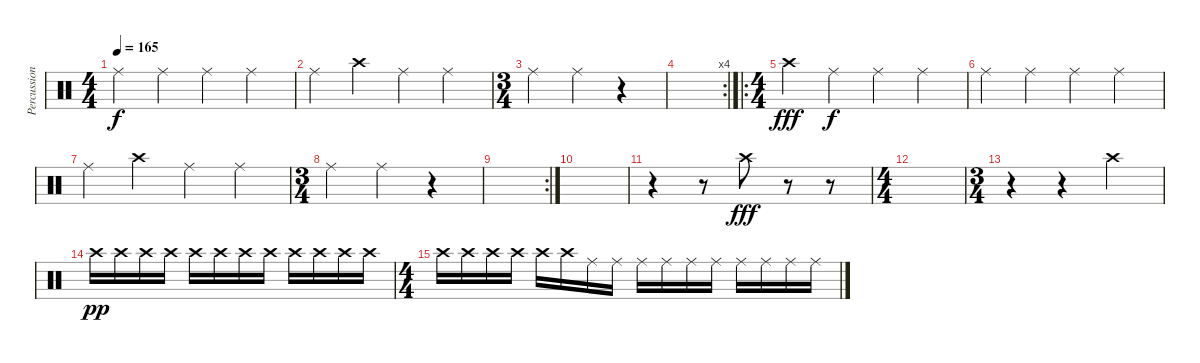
\track ("Percussion" "Percussion") {instrument percussion}
\staff {score}
\articulation defaults
\ts (4 4)
\tempo 165
\clef neutral
\ks c "Ride (middle)".4{dy f} "Ride (middle)".4 "Ride (middle)".4 "Ride (middle)".4
|
"Ride (middle)".4 "Crash high (hit)".4 "Ride (middle)".4 "Ride (middle)".4 |
\ts (3 4)
"Ride (middle)".4 "Ride (middle)".4 r.4 |
\rc 4
|
\ro
\ts (4 4)
"Crash high (hit)".4{dy fff} "Ride (middle)".4{dy f} "Ride (middle)".4 "Ride (middle)".4 |
"Ride (middle)".4 "Ride (middle)".4 "Ride (middle)".4 "Ride (middle)".4 |
"Ride (middle)".4 "Crash high (hit)".4 "Ride (middle)".4 "Ride (middle)".4 |
\ts (3 4)
"Ride (middle)".4 "Ride (middle)".4 r.4 |
\rc 2
|
|
r.4 r.8 "Crash high (hit)".8{dy fff} r.8 r.8 |
\ts (4 4)
|
\ts (3 4)
r.4 r.4 "Crash high (hit)".4 |
"Crash high (hit)".16{dy pp} "Crash high (hit)".16 "Crash high (hit)".16 "Crash high (hit)".16 "Crash high (hit)".16 "Crash high (hit)".16 "Crash high (hit)".16 "Crash high (hit)".16 "Crash high (hit)".16 "Crash high (hit)".16 "Crash high (hit)".16 "Crash high (hit)".16 |
\ts (4 4)
"Crash high (hit)".16 "Crash high (hit)".16 "Crash high (hit)".16 "Crash high (hit)".16 "Crash high (hit)".16 "Crash high (hit)".16 "Ride (middle)".16 "Ride (middle)".16 "Ride (middle)".16 "Ride (middle)".16 "Ride (middle)".16 "Ride (middle)".16 "Ride (middle)".16 "Ride (middle)".16 "Ride (middle)".16 "Ride (middle)".16
